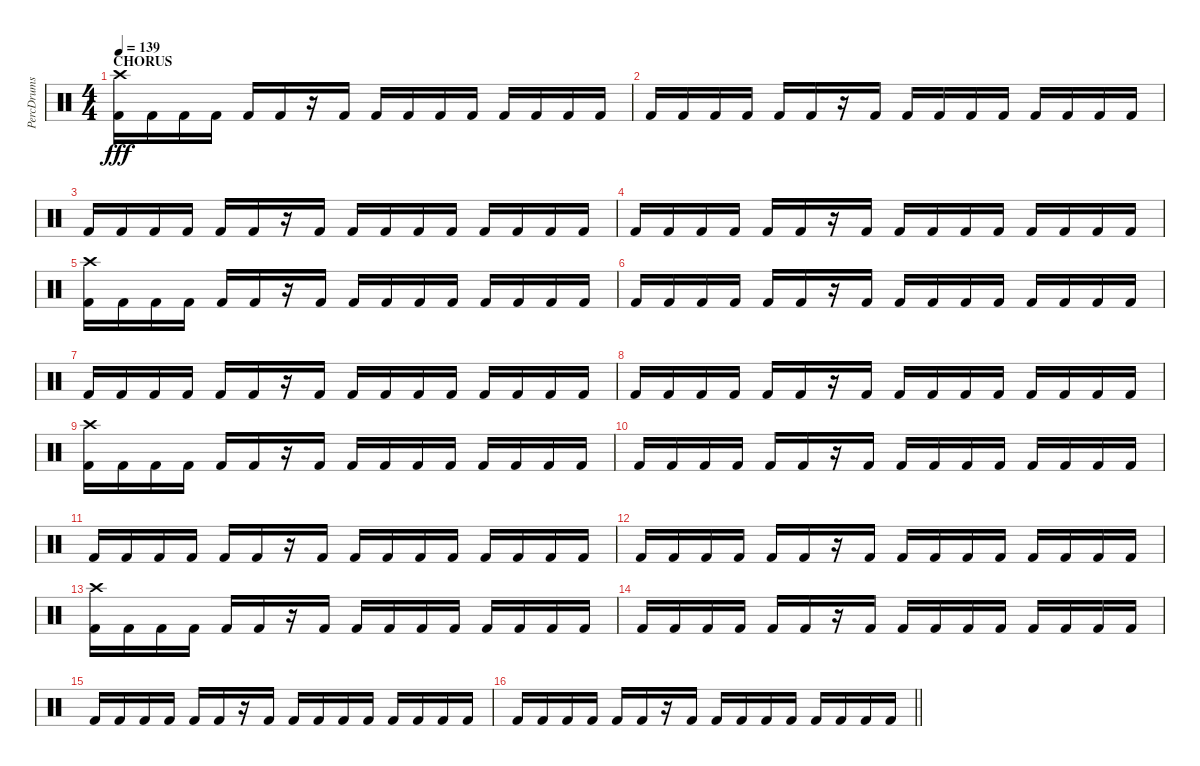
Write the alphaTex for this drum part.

\track ("PercDrums" "PercDrums") {instrument percussion}
\staff {score}
\articulation defaults
\ts (4 4)
\section ("" "CHORUS")
\tempo 139
\clef neutral
\ks c
("Kick (hit) 2" "Crash high (hit)").16{dy fff} "Kick (hit) 2".16 "Kick (hit) 2".16 "Kick (hit) 2".16 "Kick (hit) 2".16 "Kick (hit) 2".16 r.16 "Kick (hit) 2".16 "Kick (hit) 2".16 "Kick (hit) 2".16 "Kick (hit) 2".16 "Kick (hit) 2".16 "Kick (hit) 2".16 "Kick (hit) 2".16 "Kick (hit) 2".16 "Kick (hit) 2".16 |
"Kick (hit) 2".16 "Kick (hit) 2".16 "Kick (hit) 2".16 "Kick (hit) 2".16 "Kick (hit) 2".16 "Kick (hit) 2".16 r.16 "Kick (hit) 2".16 "Kick (hit) 2".16 "Kick (hit) 2".16 "Kick (hit) 2".16 "Kick (hit) 2".16 "Kick (hit) 2".16 "Kick (hit) 2".16 "Kick (hit) 2".16 "Kick (hit) 2".16 |
"Kick (hit) 2".16 "Kick (hit) 2".16 "Kick (hit) 2".16 "Kick (hit) 2".16 "Kick (hit) 2".16 "Kick (hit) 2".16 r.16 "Kick (hit) 2".16 "Kick (hit) 2".16 "Kick (hit) 2".16 "Kick (hit) 2".16 "Kick (hit) 2".16 "Kick (hit) 2".16 "Kick (hit) 2".16 "Kick (hit) 2".16 "Kick (hit) 2".16 |
"Kick (hit) 2".16 "Kick (hit) 2".16 "Kick (hit) 2".16 "Kick (hit) 2".16 "Kick (hit) 2".16 "Kick (hit) 2".16 r.16 "Kick (hit) 2".16 "Kick (hit) 2".16 "Kick (hit) 2".16 "Kick (hit) 2".16 "Kick (hit) 2".16 "Kick (hit) 2".16 "Kick (hit) 2".16 "Kick (hit) 2".16 "Kick (hit) 2".16 |
("Kick (hit) 2" "Crash high (hit)").16 "Kick (hit) 2".16 "Kick (hit) 2".16 "Kick (hit) 2".16 "Kick (hit) 2".16 "Kick (hit) 2".16 r.16 "Kick (hit) 2".16 "Kick (hit) 2".16 "Kick (hit) 2".16 "Kick (hit) 2".16 "Kick (hit) 2".16 "Kick (hit) 2".16 "Kick (hit) 2".16 "Kick (hit) 2".16 "Kick (hit) 2".16 |
"Kick (hit) 2".16 "Kick (hit) 2".16 "Kick (hit) 2".16 "Kick (hit) 2".16 "Kick (hit) 2".16 "Kick (hit) 2".16 r.16 "Kick (hit) 2".16 "Kick (hit) 2".16 "Kick (hit) 2".16 "Kick (hit) 2".16 "Kick (hit) 2".16 "Kick (hit) 2".16 "Kick (hit) 2".16 "Kick (hit) 2".16 "Kick (hit) 2".16 |
"Kick (hit) 2".16 "Kick (hit) 2".16 "Kick (hit) 2".16 "Kick (hit) 2".16 "Kick (hit) 2".16 "Kick (hit) 2".16 r.16 "Kick (hit) 2".16 "Kick (hit) 2".16 "Kick (hit) 2".16 "Kick (hit) 2".16 "Kick (hit) 2".16 "Kick (hit) 2".16 "Kick (hit) 2".16 "Kick (hit) 2".16 "Kick (hit) 2".16 |
"Kick (hit) 2".16 "Kick (hit) 2".16 "Kick (hit) 2".16 "Kick (hit) 2".16 "Kick (hit) 2".16 "Kick (hit) 2".16 r.16 "Kick (hit) 2".16 "Kick (hit) 2".16 "Kick (hit) 2".16 "Kick (hit) 2".16 "Kick (hit) 2".16 "Kick (hit) 2".16 "Kick (hit) 2".16 "Kick (hit) 2".16 "Kick (hit) 2".16 |
("Kick (hit) 2" "Crash high (hit)").16 "Kick (hit) 2".16 "Kick (hit) 2".16 "Kick (hit) 2".16 "Kick (hit) 2".16 "Kick (hit) 2".16 r.16 "Kick (hit) 2".16 "Kick (hit) 2".16 "Kick (hit) 2".16 "Kick (hit) 2".16 "Kick (hit) 2".16 "Kick (hit) 2".16 "Kick (hit) 2".16 "Kick (hit) 2".16 "Kick (hit) 2".16 |
"Kick (hit) 2".16 "Kick (hit) 2".16 "Kick (hit) 2".16 "Kick (hit) 2".16 "Kick (hit) 2".16 "Kick (hit) 2".16 r.16 "Kick (hit) 2".16 "Kick (hit) 2".16 "Kick (hit) 2".16 "Kick (hit) 2".16 "Kick (hit) 2".16 "Kick (hit) 2".16 "Kick (hit) 2".16 "Kick (hit) 2".16 "Kick (hit) 2".16 |
"Kick (hit) 2".16 "Kick (hit) 2".16 "Kick (hit) 2".16 "Kick (hit) 2".16 "Kick (hit) 2".16 "Kick (hit) 2".16 r.16 "Kick (hit) 2".16 "Kick (hit) 2".16 "Kick (hit) 2".16 "Kick (hit) 2".16 "Kick (hit) 2".16 "Kick (hit) 2".16 "Kick (hit) 2".16 "Kick (hit) 2".16 "Kick (hit) 2".16 |
"Kick (hit) 2".16 "Kick (hit) 2".16 "Kick (hit) 2".16 "Kick (hit) 2".16 "Kick (hit) 2".16 "Kick (hit) 2".16 r.16 "Kick (hit) 2".16 "Kick (hit) 2".16 "Kick (hit) 2".16 "Kick (hit) 2".16 "Kick (hit) 2".16 "Kick (hit) 2".16 "Kick (hit) 2".16 "Kick (hit) 2".16 "Kick (hit) 2".16 |
("Kick (hit) 2" "Crash high (hit)").16 "Kick (hit) 2".16 "Kick (hit) 2".16 "Kick (hit) 2".16 "Kick (hit) 2".16 "Kick (hit) 2".16 r.16 "Kick (hit) 2".16 "Kick (hit) 2".16 "Kick (hit) 2".16 "Kick (hit) 2".16 "Kick (hit) 2".16 "Kick (hit) 2".16 "Kick (hit) 2".16 "Kick (hit) 2".16 "Kick (hit) 2".16 |
"Kick (hit) 2".16 "Kick (hit) 2".16 "Kick (hit) 2".16 "Kick (hit) 2".16 "Kick (hit) 2".16 "Kick (hit) 2".16 r.16 "Kick (hit) 2".16 "Kick (hit) 2".16 "Kick (hit) 2".16 "Kick (hit) 2".16 "Kick (hit) 2".16 "Kick (hit) 2".16 "Kick (hit) 2".16 "Kick (hit) 2".16 "Kick (hit) 2".16 |
"Kick (hit) 2".16 "Kick (hit) 2".16 "Kick (hit) 2".16 "Kick (hit) 2".16 "Kick (hit) 2".16 "Kick (hit) 2".16 r.16 "Kick (hit) 2".16 "Kick (hit) 2".16 "Kick (hit) 2".16 "Kick (hit) 2".16 "Kick (hit) 2".16 "Kick (hit) 2".16 "Kick (hit) 2".16 "Kick (hit) 2".16 "Kick (hit) 2".16 |
\barLineRight lightlight "Kick (hit) 2".16 "Kick (hit) 2".16 "Kick (hit) 2".16 "Kick (hit) 2".16 "Kick (hit) 2".16 "Kick (hit) 2".16
r.16 "Kick (hit) 2".16 "Kick (hit) 2".16 "Kick (hit) 2".16 "Kick (hit) 2".16 "Kick (hit) 2".16 "Kick (hit) 2".16 "Kick (hit) 2".16 "Kick (hit) 2".16 "Kick (hit) 2".16
